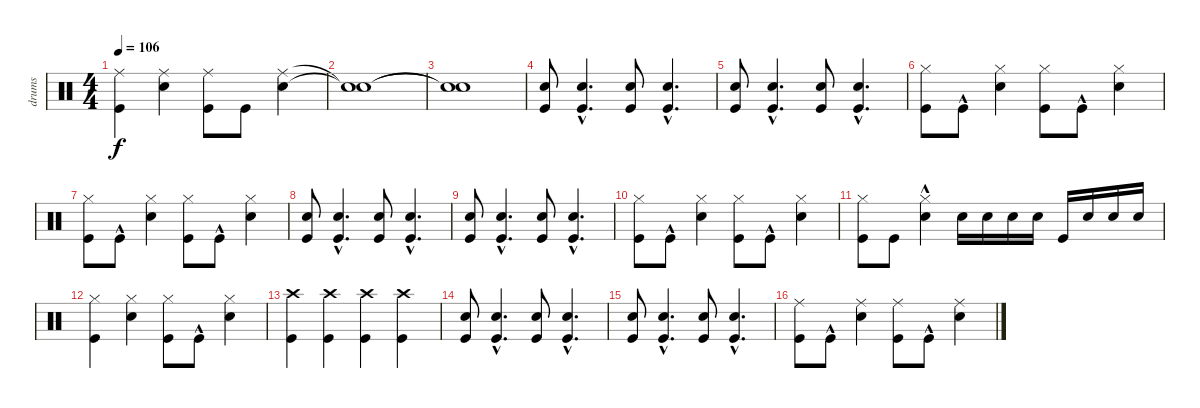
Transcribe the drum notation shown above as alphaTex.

\track ("drums" "drums") {instrument percussion}
\staff {score}
\articulation defaults
\ts (4 4)
\tempo 106
\clef neutral
\ks c
("Kick (hit)" "Ride (middle)").4{dy f} ("Snare (hit) 2" "Ride (middle)").4 ("Kick (hit)" "Ride (middle)").8 "Kick (hit)".8 ("Snare (hit) 2" "Ride (middle)").4 |
("Snare (hit)"{t} "Snare (hit)"{t}).1 |
("Snare (hit)"{t} "Snare (hit)"{t}).1 |
("Kick (hit)" "Snare (hit) 2").8 ("Kick (hit)"{hac} "Snare (hit) 2"{hac}).4{d} ("Kick (hit)" "Snare (hit) 2").8 ("Kick (hit)"{hac} "Snare (hit) 2"{hac}).4{d} |
("Kick (hit)" "Snare (hit) 2").8 ("Kick (hit)"{hac} "Snare (hit) 2"{hac}).4{d} ("Kick (hit)" "Snare (hit) 2").8 ("Kick (hit)"{hac} "Snare (hit) 2").4{d} |
("Kick (hit)" "Hi-Hat (closed)").8 "Kick (hit)"{hac}.8 ("Snare (hit) 2" "Hi-Hat (closed)").4 ("Kick (hit)" "Hi-Hat (closed)").8 "Kick (hit)"{hac}.8 ("Snare (hit) 2" "Hi-Hat (closed)").4 |
("Kick (hit)" "Hi-Hat (closed)").8 "Kick (hit)"{hac}.8 ("Snare (hit) 2" "Hi-Hat (closed)").4 ("Kick (hit)" "Hi-Hat (closed)").8 "Kick (hit)"{hac}.8 ("Snare (hit) 2" "Hi-Hat (closed)").4 |
("Kick (hit)" "Snare (hit) 2").8 ("Kick (hit)"{hac} "Snare (hit) 2"{hac}).4{d} ("Kick (hit)" "Snare (hit) 2").8 ("Kick (hit)"{hac} "Snare (hit) 2"{hac}).4{d} |
("Kick (hit)" "Snare (hit) 2").8 ("Kick (hit)"{hac} "Snare (hit) 2"{hac}).4{d} ("Kick (hit)" "Snare (hit) 2").8 ("Kick (hit)"{hac} "Snare (hit) 2").4{d} |
("Kick (hit)" "Hi-Hat (closed)").8 "Kick (hit)"{hac}.8 ("Snare (hit) 2" "Hi-Hat (closed)").4 ("Kick (hit)" "Hi-Hat (closed)").8 "Kick (hit)"{hac}.8 ("Snare (hit) 2" "Hi-Hat (closed)").4 |
("Kick (hit)" "Hi-Hat (closed)").8 "Kick (hit)".8 ("Snare (hit) 2" "Hi-Hat (closed)"{hac}).4 "Snare (hit) 2".16 "Snare (hit) 2".16 "Snare (hit) 2".16 "Snare (hit) 2".16 "Kick (hit)".16 "Snare (hit) 2".16 "Snare (hit) 2".16 "Snare (hit) 2".16 |
("Kick (hit)" "Hi-Hat (closed)").4 ("Snare (hit) 2" "Hi-Hat (closed)").4 ("Kick (hit)" "Hi-Hat (closed)").8 "Kick (hit)"{hac}.8 ("Snare (hit) 2" "Hi-Hat (closed)").4 |
("Kick (hit)" "Crash high (hit)").4 ("Kick (hit)" "Crash high (hit)").4 ("Kick (hit)" "Crash high (hit)").4 ("Kick (hit)" "Crash high (hit)").4 |
("Kick (hit)" "Snare (hit) 2").8 ("Kick (hit)"{hac} "Snare (hit) 2"{hac}).4{d} ("Kick (hit)" "Snare (hit) 2").8 ("Kick (hit)"{hac} "Snare (hit) 2"{hac}).4{d} |
("Kick (hit)" "Snare (hit) 2").8 ("Kick (hit)"{hac} "Snare (hit) 2"{hac}).4{d} ("Kick (hit)" "Snare (hit) 2").8 ("Kick (hit)"{hac} "Snare (hit) 2").4{d} |
("Kick (hit)" "Ride (middle)").8 "Kick (hit)"{hac}.8 ("Snare (hit) 2" "Ride (middle)").4 ("Kick (hit)" "Ride (middle)").8 "Kick (hit)"{hac}.8 ("Snare (hit) 2" "Ride (middle)").4
